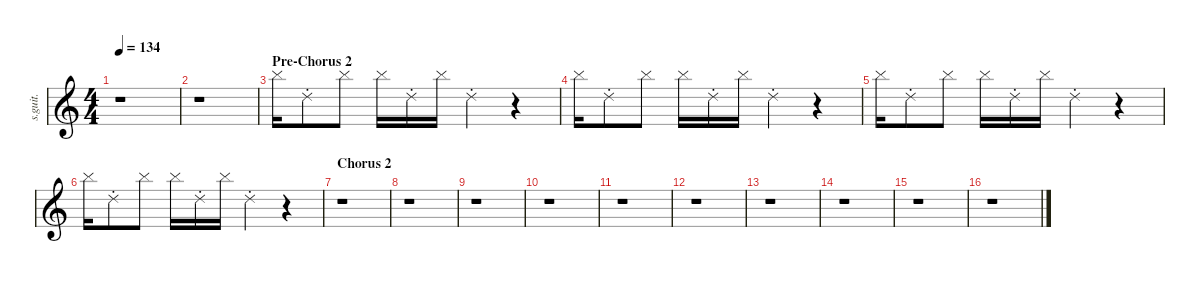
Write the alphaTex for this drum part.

\defaultSystemsLayout 4
\hideDynamics
\bracketExtendMode nobrackets
\track ("Sid Wilson" "s.guit.") {instrument percussion}
\staff {score}
\articulation defaults
\ts (4 4)
\tempo 134
\clef g2
\ks c
r.1{dy f} |
r.1 |
\section ("" "Pre-Chorus 2")
"Cymbal (hit)".16 "Ride (choke) 2".8 "Cymbal (hit)".8 "Cymbal (hit)".16 "Ride (choke) 2".16 "Cymbal (hit)".16 "Ride (choke) 2".4 r.4 |
"Cymbal (hit)".16 "Ride (choke) 2".8 "Cymbal (hit)".8 "Cymbal (hit)".16 "Ride (choke) 2".16 "Cymbal (hit)".16 "Ride (choke) 2".4 r.4 |
"Cymbal (hit)".16 "Ride (choke) 2".8 "Cymbal (hit)".8 "Cymbal (hit)".16 "Ride (choke) 2".16 "Cymbal (hit)".16 "Ride (choke) 2".4 r.4 |
"Cymbal (hit)".16 "Ride (choke) 2".8 "Cymbal (hit)".8 "Cymbal (hit)".16 "Ride (choke) 2".16 "Cymbal (hit)".16 "Ride (choke) 2".4 r.4 |
\section ("" "Chorus 2")
r.1 |
r.1 |
r.1 |
r.1 |
r.1 |
r.1 |
r.1 |
r.1 |
r.1 |
r.1
